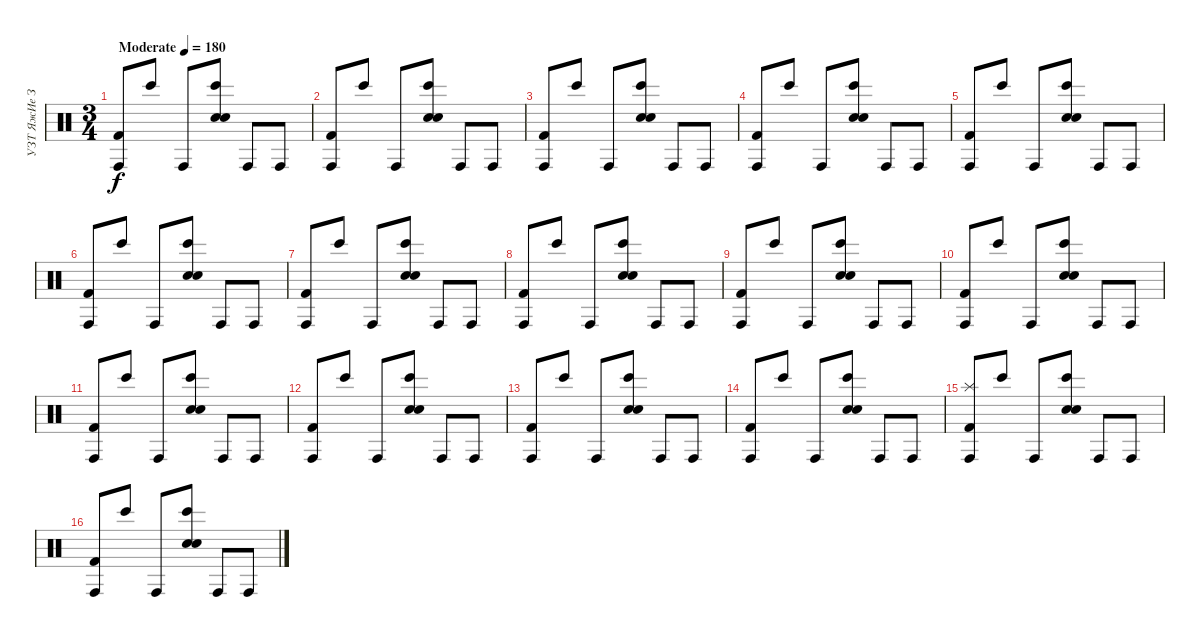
\track ("УЗТ ЯжИе Зн" "УЗТ ЯжИе З") {instrument percussion}
\staff {score}
\articulation defaults
\ts (3 4)
\tempo (180 "Moderate")
\clef neutral
\ks c
("Conga high (hit)" "Kick (hit) 2").8{dy f} "Bongo High (hit)".8 "Conga high (hit)".8 ("Bongo High (hit)" "Snare (hit) 2" "Hand Clap (hit)").8 "Conga high (hit)".8 "Conga high (hit)".8 |
("Conga high (hit)" "Kick (hit) 2").8 "Bongo High (hit)".8 "Conga high (hit)".8 ("Bongo High (hit)" "Snare (hit) 2" "Hand Clap (hit)").8 "Conga high (hit)".8 "Conga high (hit)".8 |
("Conga high (hit)" "Kick (hit) 2").8 "Bongo High (hit)".8 "Conga high (hit)".8 ("Bongo High (hit)" "Snare (hit) 2" "Hand Clap (hit)").8 "Conga high (hit)".8 "Conga high (hit)".8 |
("Conga high (hit)" "Kick (hit) 2").8 "Bongo High (hit)".8 "Conga high (hit)".8 ("Bongo High (hit)" "Snare (hit) 2" "Hand Clap (hit)").8 "Conga high (hit)".8 "Conga high (hit)".8 |
("Conga high (hit)" "Kick (hit) 2").8 "Bongo High (hit)".8 "Conga high (hit)".8 ("Bongo High (hit)" "Snare (hit) 2" "Hand Clap (hit)").8 "Conga high (hit)".8 "Conga high (hit)".8 |
("Conga high (hit)" "Kick (hit) 2").8 "Bongo High (hit)".8 "Conga high (hit)".8 ("Bongo High (hit)" "Snare (hit) 2" "Hand Clap (hit)").8 "Conga high (hit)".8 "Conga high (hit)".8 |
("Conga high (hit)" "Kick (hit) 2").8 "Bongo High (hit)".8 "Conga high (hit)".8 ("Bongo High (hit)" "Snare (hit) 2" "Hand Clap (hit)").8 "Conga high (hit)".8 "Conga high (hit)".8 |
("Conga high (hit)" "Kick (hit) 2").8 "Bongo High (hit)".8 "Conga high (hit)".8 ("Bongo High (hit)" "Snare (hit) 2" "Hand Clap (hit)").8 "Conga high (hit)".8 "Conga high (hit)".8 |
("Conga high (hit)" "Kick (hit) 2").8 "Bongo High (hit)".8 "Conga high (hit)".8 ("Bongo High (hit)" "Snare (hit) 2" "Hand Clap (hit)").8 "Conga high (hit)".8 "Conga high (hit)".8 |
("Conga high (hit)" "Kick (hit) 2").8 "Bongo High (hit)".8 "Conga high (hit)".8 ("Bongo High (hit)" "Snare (hit) 2" "Hand Clap (hit)").8 "Conga high (hit)".8 "Conga high (hit)".8 |
("Conga high (hit)" "Kick (hit) 2").8 "Bongo High (hit)".8 "Conga high (hit)".8 ("Bongo High (hit)" "Snare (hit) 2" "Hand Clap (hit)").8 "Conga high (hit)".8 "Conga high (hit)".8 |
("Conga high (hit)" "Kick (hit) 2").8 "Bongo High (hit)".8 "Conga high (hit)".8 ("Bongo High (hit)" "Snare (hit) 2" "Hand Clap (hit)").8 "Conga high (hit)".8 "Conga high (hit)".8 |
("Conga high (hit)" "Kick (hit) 2").8 "Bongo High (hit)".8 "Conga high (hit)".8 ("Bongo High (hit)" "Snare (hit) 2" "Hand Clap (hit)").8 "Conga high (hit)".8 "Conga high (hit)".8 |
("Conga high (hit)" "Kick (hit) 2").8 "Bongo High (hit)".8 "Conga high (hit)".8 ("Bongo High (hit)" "Snare (hit) 2" "Hand Clap (hit)").8 "Conga high (hit)".8 "Conga high (hit)".8 |
("Conga high (hit)" "Kick (hit) 2" "Splash (hit)").8 "Bongo High (hit)".8 "Conga high (hit)".8 ("Bongo High (hit)" "Snare (hit) 2" "Hand Clap (hit)").8 "Conga high (hit)".8 "Conga high (hit)".8 |
("Conga high (hit)" "Kick (hit) 2").8 "Bongo High (hit)".8 "Conga high (hit)".8 ("Bongo High (hit)" "Snare (hit) 2" "Hand Clap (hit)").8 "Conga high (hit)".8 "Conga high (hit)".8
